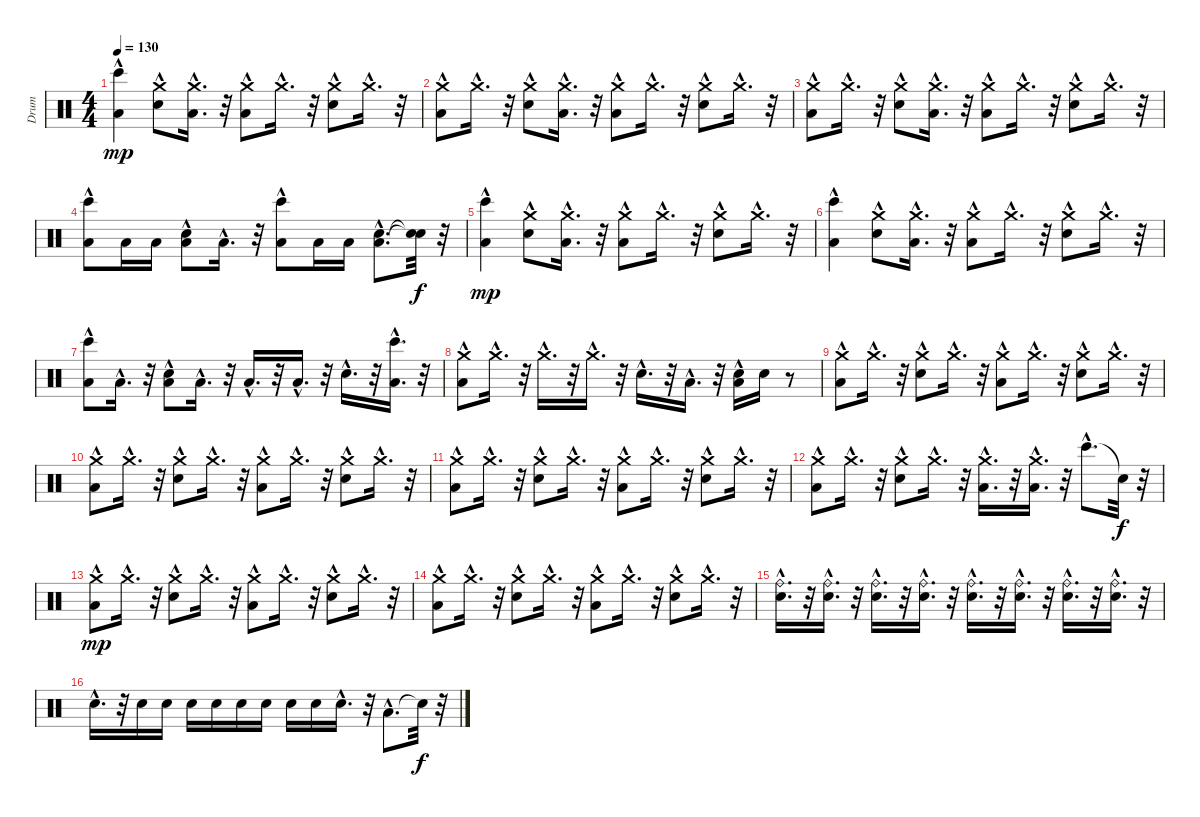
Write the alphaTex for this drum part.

\track ("Drum" "Drum") {instrument percussion}
\staff {score}
\articulation defaults
\ts (4 4)
\tempo 130
\clef neutral
\ks c
("Low Tom (hit)" "Bongo High (hit)"{hac}).4{dy mp} ("Snare (hit) 2"{hac} "Crash medium (hit)"{hac}).8 ("Low Tom (hit)"{hac} "Crash medium (hit)"{hac}).16{d} r.32 ("Low Tom (hit)"{hac} "Crash medium (hit)"{hac}).8 "Crash medium (hit)"{hac}.16{d} r.32 ("Snare (hit) 2"{hac} "Crash medium (hit)"{hac}).8 "Crash medium (hit)"{hac}.16{d} r.32 |
("Low Tom (hit)" "Crash medium (hit)"{hac}).8 "Crash medium (hit)"{hac}.16{d} r.32 ("Snare (hit) 2"{hac} "Crash medium (hit)"{hac}).8 ("Low Tom (hit)"{hac} "Crash medium (hit)"{hac}).16{d} r.32 ("Low Tom (hit)"{hac} "Crash medium (hit)"{hac}).8 "Crash medium (hit)"{hac}.16{d} r.32 ("Snare (hit) 2"{hac} "Crash medium (hit)"{hac}).8 "Crash medium (hit)"{hac}.16{d} r.32 |
("Low Tom (hit)" "Crash medium (hit)"{hac}).8 "Crash medium (hit)"{hac}.16{d} r.32 ("Snare (hit) 2"{hac} "Crash medium (hit)"{hac}).8 ("Low Tom (hit)"{hac} "Crash medium (hit)"{hac}).16{d} r.32 ("Low Tom (hit)"{hac} "Crash medium (hit)"{hac}).8 "Crash medium (hit)"{hac}.16{d} r.32 ("Snare (hit) 2"{hac} "Crash medium (hit)"{hac}).8 "Crash medium (hit)"{hac}.16{d} r.32 |
("Bongo High (hit)"{hac} "Low Tom (hit)"{hac}).8 "Low Tom (hit)".16 "Low Tom (hit)".16 ("Snare (hit) 2"{hac} "Low Tom (hit)"{hac}).8 "Low Tom (hit)"{hac}.16{d} r.32 ("Bongo High (hit)"{hac} "Low Tom (hit)"{hac}).8 "Low Tom (hit)".16 "Low Tom (hit)".16 ("Snare (hit) 2"{hac} "Low Tom (hit)"{hac}).8{d} ("Snare (hit)"{t} "Snare (hit)"{t}).32{dy f} r.32 |
("Low Tom (hit)" "Bongo High (hit)"{hac}).4{dy mp} ("Snare (hit) 2"{hac} "Crash medium (hit)"{hac}).8 ("Low Tom (hit)"{hac} "Crash medium (hit)"{hac}).16{d} r.32 ("Low Tom (hit)"{hac} "Crash medium (hit)"{hac}).8 "Crash medium (hit)"{hac}.16{d} r.32 ("Snare (hit) 2"{hac} "Crash medium (hit)"{hac}).8 "Crash medium (hit)"{hac}.16{d} r.32 |
("Low Tom (hit)" "Bongo High (hit)"{hac}).4 ("Snare (hit) 2"{hac} "Crash medium (hit)"{hac}).8 ("Low Tom (hit)"{hac} "Crash medium (hit)"{hac}).16{d} r.32 ("Low Tom (hit)"{hac} "Crash medium (hit)"{hac}).8 "Crash medium (hit)"{hac}.16{d} r.32 ("Snare (hit) 2"{hac} "Crash medium (hit)"{hac}).8 "Crash medium (hit)"{hac}.16{d} r.32 |
("Bongo High (hit)"{hac} "Low Tom (hit)"{hac}).8 "Low Tom (hit)"{hac}.16{d} r.32 ("Snare (hit) 2"{hac} "Low Tom (hit)"{hac}).8 "Low Tom (hit)"{hac}.16{d} r.32 "Low Tom (hit)"{hac}.16{d} r.32 "Low Tom (hit)"{hac}.16{d} r.32 "Snare (hit) 2"{hac}.16{d} r.32 ("Bongo High (hit)"{hac} "Low Tom (hit)"{hac}).16{d} r.32 |
("Low Tom (hit)"{hac} "Crash medium (hit)"{hac}).8 "Crash medium (hit)"{hac}.16{d} r.32 "Crash medium (hit)"{hac}.16{d} r.32 "Crash medium (hit)"{hac}.16{d} r.32 "Snare (hit) 2"{hac}.16{d} r.32 "Low Tom (hit)"{hac}.16{d} r.32 ("Low Tom (hit)"{hac} "Snare (hit) 2").16 "Snare (hit) 2".16 r.8 |
("Low Tom (hit)"{hac} "Crash medium (hit)"{hac}).8 "Crash medium (hit)"{hac}.16{d} r.32 ("Snare (hit) 2"{hac} "Crash medium (hit)"{hac}).8 "Crash medium (hit)"{hac}.16{d} r.32 ("Low Tom (hit)"{hac} "Crash medium (hit)"{hac}).8 "Crash medium (hit)"{hac}.16{d} r.32 ("Snare (hit) 2"{hac} "Crash medium (hit)"{hac}).8 "Crash medium (hit)"{hac}.16{d} r.32 |
("Low Tom (hit)"{hac} "Crash medium (hit)"{hac}).8 "Crash medium (hit)"{hac}.16{d} r.32 ("Snare (hit) 2"{hac} "Crash medium (hit)"{hac}).8 "Crash medium (hit)"{hac}.16{d} r.32 ("Low Tom (hit)"{hac} "Crash medium (hit)"{hac}).8 "Crash medium (hit)"{hac}.16{d} r.32 ("Snare (hit) 2"{hac} "Crash medium (hit)"{hac}).8 "Crash medium (hit)"{hac}.16{d} r.32 |
("Low Tom (hit)"{hac} "Crash medium (hit)"{hac}).8 "Crash medium (hit)"{hac}.16{d} r.32 ("Snare (hit) 2"{hac} "Crash medium (hit)"{hac}).8 "Crash medium (hit)"{hac}.16{d} r.32 ("Low Tom (hit)"{hac} "Crash medium (hit)"{hac}).8 "Crash medium (hit)"{hac}.16{d} r.32 ("Snare (hit) 2"{hac} "Crash medium (hit)"{hac}).8 "Crash medium (hit)"{hac}.16{d} r.32 |
("Low Tom (hit)"{hac} "Crash medium (hit)"{hac}).8 "Crash medium (hit)"{hac}.16{d} r.32 ("Snare (hit) 2"{hac} "Crash medium (hit)"{hac}).8 "Crash medium (hit)"{hac}.16{d} r.32 ("Low Tom (hit)"{hac} "Crash medium (hit)"{hac}).16{d} r.32 ("Low Tom (hit)"{hac} "Crash medium (hit)"{hac}).16{d} r.32 "Bongo High (hit)"{hac}.8{d} "Snare (hit)"{t}.32{dy f} r.32 |
("Low Tom (hit)"{hac} "Crash medium (hit)"{hac}).8{dy mp} "Crash medium (hit)"{hac}.16{d} r.32 ("Snare (hit) 2"{hac} "Crash medium (hit)"{hac}).8 "Crash medium (hit)"{hac}.16{d} r.32 ("Low Tom (hit)"{hac} "Crash medium (hit)"{hac}).8 "Crash medium (hit)"{hac}.16{d} r.32 ("Snare (hit) 2"{hac} "Crash medium (hit)"{hac}).8 "Crash medium (hit)"{hac}.16{d} r.32 |
("Low Tom (hit)"{hac} "Crash medium (hit)"{hac}).8 "Crash medium (hit)"{hac}.16{d} r.32 ("Snare (hit) 2"{hac} "Crash medium (hit)"{hac}).8 "Crash medium (hit)"{hac}.16{d} r.32 ("Low Tom (hit)"{hac} "Crash medium (hit)"{hac}).8 "Crash medium (hit)"{hac}.16{d} r.32 ("Snare (hit) 2"{hac} "Crash medium (hit)"{hac}).8 "Crash medium (hit)"{hac}.16{d} r.32 |
("Snare (hit) 2"{hac} "Ride (bell)"{hac}).16{d} r.32 ("Snare (hit) 2"{hac} "Ride (bell)"{hac}).16{d} r.32 ("Snare (hit) 2"{hac} "Ride (bell)"{hac}).16{d} r.32 ("Snare (hit) 2"{hac} "Ride (bell)"{hac}).16{d} r.32 ("Snare (hit) 2"{hac} "Ride (bell)"{hac}).16{d} r.32 ("Snare (hit) 2"{hac} "Ride (bell)"{hac}).16{d} r.32 ("Snare (hit) 2"{hac} "Ride (bell)"{hac}).16{d} r.32 ("Snare (hit) 2"{hac} "Ride (bell)"{hac}).16{d} r.32 |
"Snare (hit) 2"{hac}.16{d} r.32 "Snare (hit) 2".16 "Snare (hit) 2".16 "Snare (hit) 2".16 "Snare (hit) 2".16 "Snare (hit) 2".16 "Snare (hit) 2".16 "Snare (hit) 2".16 "Snare (hit) 2".16 "Snare (hit) 2"{hac}.16{d} r.32 "Low Tom (hit)"{hac}.8{d} "Snare (hit)"{t}.32{dy f} r.32
